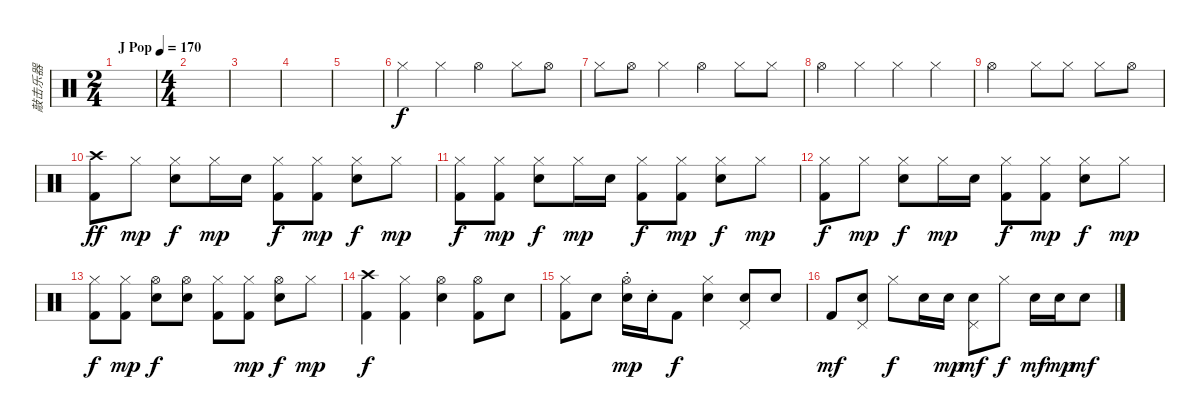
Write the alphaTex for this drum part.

\track ("敲击乐器" "敲击乐器") {instrument percussion}
\staff {score}
\articulation defaults
\ts (2 4)
\tempo (170 "J Pop")
\clef neutral
\ks c
|
\ts (4 4)
|
|
|
|
"Hi-Hat (closed)".4 "Hi-Hat (closed)".4 "Hi-Hat (open)".4 "Hi-Hat (closed)".8 "Hi-Hat (open)".8 |
"Hi-Hat (closed)".8 "Hi-Hat (open)".8 "Hi-Hat (closed)".4 "Hi-Hat (open)".4 "Hi-Hat (closed)".8 "Hi-Hat (closed)".8 |
"Hi-Hat (open)".4 "Hi-Hat (closed)".4 "Hi-Hat (closed)".4 "Hi-Hat (closed)".4 |
"Hi-Hat (open)".2 "Hi-Hat (closed)".8 "Hi-Hat (closed)".8 "Hi-Hat (closed)".8 "Hi-Hat (open)".8 |
("Crash high (hit)" "Kick (hit) 2").8{dy ff} "Hi-Hat (closed)".8{dy mp} ("Hi-Hat (closed)" "Snare (hit) 2").8{dy f} "Hi-Hat (closed)".16{dy mp} "Snare (hit) 2".16 ("Hi-Hat (closed)" "Kick (hit) 2").8{dy f} ("Hi-Hat (closed)" "Kick (hit) 2").8{dy mp} ("Hi-Hat (closed)" "Snare (hit) 2").8{dy f} "Hi-Hat (closed)".8{dy mp} |
("Hi-Hat (closed)" "Kick (hit) 2").8{dy f} ("Hi-Hat (closed)" "Kick (hit) 2").8{dy mp} ("Hi-Hat (closed)" "Snare (hit) 2").8{dy f} "Hi-Hat (closed)".16{dy mp} "Snare (hit) 2".16 ("Hi-Hat (closed)" "Kick (hit) 2").8{dy f} ("Hi-Hat (closed)" "Kick (hit) 2").8{dy mp} ("Hi-Hat (closed)" "Snare (hit) 2").8{dy f} "Hi-Hat (closed)".8{dy mp} |
("Hi-Hat (closed)" "Kick (hit) 2").8{dy f} "Hi-Hat (closed)".8{dy mp} ("Hi-Hat (closed)" "Snare (hit) 2").8{dy f} "Hi-Hat (closed)".16{dy mp} "Snare (hit) 2".16 ("Hi-Hat (closed)" "Kick (hit) 2").8{dy f} ("Hi-Hat (closed)" "Kick (hit) 2").8{dy mp} ("Hi-Hat (closed)" "Snare (hit) 2").8{dy f} "Hi-Hat (closed)".8{dy mp} |
("Hi-Hat (closed)" "Kick (hit) 2").8{dy f} ("Hi-Hat (closed)" "Kick (hit) 2").8{dy mp} ("Hi-Hat (open)" "Snare (hit) 2").8{dy f} ("Hi-Hat (open)" "Snare (hit) 2").8 ("Hi-Hat (closed)" "Kick (hit) 2").8 ("Hi-Hat (closed)" "Kick (hit) 2").8{dy mp} ("Hi-Hat (open)" "Snare (hit) 2").8{dy f} "Hi-Hat (closed)".8{dy mp} |
("Crash high (hit)" "Kick (hit) 2").4{dy f} ("Hi-Hat (closed)" "Kick (hit) 2").4 ("Hi-Hat (open)" "Snare (hit) 2").4 ("Hi-Hat (open)" "Kick (hit) 2").8 "Snare (hit) 2".8 |
("Hi-Hat (closed)" "Kick (hit) 2").8 "Snare (hit) 2".8 ("Hi-Hat (open)" "Snare (hit) 2"{st}).16{dy mp} "Snare (hit) 2"{st}.16 "Kick (hit) 2".8{dy f} ("Hi-Hat (closed)" "Snare (hit) 2").4 ("Pedal Hi-Hat (hit)" "Snare (hit) 2").8 "Snare (hit) 2".8 |
"Kick (hit) 2".8{dy mf} ("Pedal Hi-Hat (hit)" "Snare (hit) 2").8 "Hi-Hat (closed)".8{dy f} "Snare (hit) 2".16 "Snare (hit) 2".16{dy mp} ("Pedal Hi-Hat (hit)" "Snare (hit) 2").8{dy mf} "Hi-Hat (closed)".8{dy f} "Snare (hit) 2".16{dy mf} "Snare (hit) 2".16{dy mp} "Snare (hit) 2".8{dy mf}
